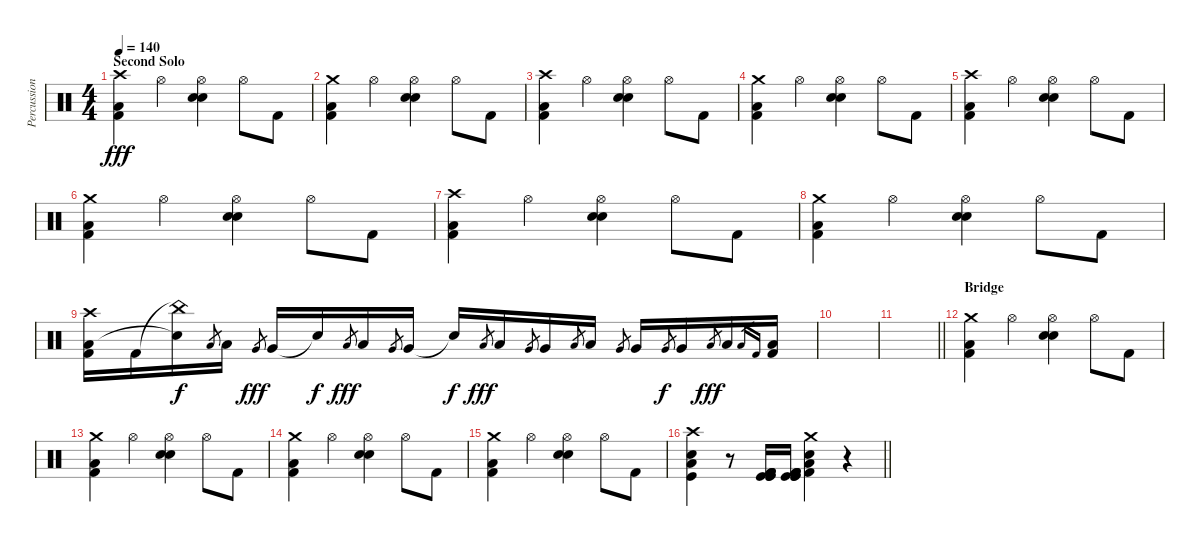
\track ("Percussion" "Percussion") {instrument percussion}
\staff {score}
\articulation defaults
\ts (4 4)
\section ("" "Second Solo")
\tempo 140
\clef neutral
\ks c
("Crash high (hit)" "Low Floor Tom (hit)" "Kick (hit) 2").4{dy fff} "Hi-Hat (open)".4 ("Hi-Hat (open)" "Snare (hit) 2" "Electric Snare (hit)").4 "Hi-Hat (open)".8 "Kick (hit) 2".8 |
("Crash medium (hit)" "Low Floor Tom (hit)" "Kick (hit) 2").4 "Hi-Hat (open)".4 ("Hi-Hat (open)" "Snare (hit) 2" "Electric Snare (hit)").4 "Hi-Hat (open)".8 "Kick (hit) 2".8 |
("Crash high (hit)" "Low Floor Tom (hit)" "Kick (hit) 2").4 "Hi-Hat (open)".4 ("Hi-Hat (open)" "Snare (hit) 2" "Electric Snare (hit)").4 "Hi-Hat (open)".8 "Kick (hit) 2".8 |
("Crash medium (hit)" "Low Floor Tom (hit)" "Kick (hit) 2").4 "Hi-Hat (open)".4 ("Hi-Hat (open)" "Snare (hit) 2" "Electric Snare (hit)").4 "Hi-Hat (open)".8 "Kick (hit) 2".8 |
("Crash high (hit)" "Low Floor Tom (hit)" "Kick (hit) 2").4 "Hi-Hat (open)".4 ("Hi-Hat (open)" "Snare (hit) 2" "Electric Snare (hit)").4 "Hi-Hat (open)".8 "Kick (hit) 2".8 |
("Crash medium (hit)" "Low Floor Tom (hit)" "Kick (hit) 2").4 "Hi-Hat (open)".4 ("Hi-Hat (open)" "Snare (hit) 2" "Electric Snare (hit)").4 "Hi-Hat (open)".8 "Kick (hit) 2".8 |
("Crash high (hit)" "Low Floor Tom (hit)" "Kick (hit) 2").4 "Hi-Hat (open)".4 ("Hi-Hat (open)" "Snare (hit) 2" "Electric Snare (hit)").4 "Hi-Hat (open)".8 "Kick (hit) 2".8 |
("Crash medium (hit)" "Low Floor Tom (hit)" "Kick (hit) 2").4 "Hi-Hat (open)".4 ("Hi-Hat (open)" "Snare (hit) 2" "Electric Snare (hit)").4 "Hi-Hat (open)".8 "Kick (hit) 2".8 |
("Crash high (hit)" "Low Floor Tom (hit)" "Kick (hit) 2").16 "Kick (hit) 2".16 ("China (hit)"{t} "Snare (hit)"{t}).16{dy f} "Low Floor Tom (hit)".8{gr} "Low Floor Tom (hit)".16 "Very Low Tom (hit)".8{gr dy fff} "Very Low Tom (hit)".16 "Snare (hit)"{t}.16{dy f} "Low Floor Tom (hit)".8{gr dy fff} "Low Floor Tom (hit)".16 "Very Low Tom (hit)".8{gr} "Very Low Tom (hit)".16 "Snare (hit) 2"{t}.16{dy f} "Low Floor Tom (hit)".8{gr dy fff} "Low Floor Tom (hit)".16 "Very Low Tom (hit)".8{gr} "Very Low Tom (hit)".16 "Low Floor Tom (hit)".8{gr} "Low Floor Tom (hit)".16 "Very Low Tom (hit)".8{gr} "Very Low Tom (hit)".16 "Very Low Tom (hit)".8{gr dy f} "Very Low Tom (hit)".16 "Low Floor Tom (hit)".8{gr dy fff} "Low Floor Tom (hit)".16 "Low Floor Tom (hit)".16{gr} "Kick (hit) 2".16{gr} ("Low Floor Tom (hit)" "Kick (hit) 2").16 |
|
\barLineRight lightlight
|
\section ("" "Bridge")
("Crash medium (hit)" "Low Floor Tom (hit)" "Kick (hit) 2").4 "Hi-Hat (open)".4 ("Hi-Hat (open)" "Snare (hit) 2" "Electric Snare (hit)").4 "Hi-Hat (open)".8 "Kick (hit) 2".8 |
("Crash medium (hit)" "Low Floor Tom (hit)" "Kick (hit) 2").4 "Hi-Hat (open)".4 ("Hi-Hat (open)" "Snare (hit) 2" "Electric Snare (hit)").4 "Hi-Hat (open)".8 "Kick (hit) 2".8 |
("Crash medium (hit)" "Low Floor Tom (hit)" "Kick (hit) 2").4 "Hi-Hat (open)".4 ("Hi-Hat (open)" "Snare (hit) 2" "Electric Snare (hit)").4 "Hi-Hat (open)".8 "Kick (hit) 2".8 |
("Crash medium (hit)" "Low Floor Tom (hit)" "Kick (hit) 2").4 "Hi-Hat (open)".4 ("Hi-Hat (open)" "Snare (hit) 2" "Electric Snare (hit)").4 "Hi-Hat (open)".8 "Kick (hit) 2".8 |
\barLineRight lightlight
("Crash high (hit)" "Kick (hit)" "Low Floor Tom (hit)" "Snare (hit) 2").4 r.8 ("Kick (hit) 2" "Kick (hit)" "Kick (hit) 2" "Kick (hit)" "Kick (hit) 2" "Kick (hit)").16 ("Kick (hit) 2" "Kick (hit)" "Kick (hit) 2" "Kick (hit)" "Kick (hit) 2" "Kick (hit)").16 ("Crash medium (hit)" "Kick (hit) 2" "Low Floor Tom (hit)" "Snare (hit) 2").4 r.4
